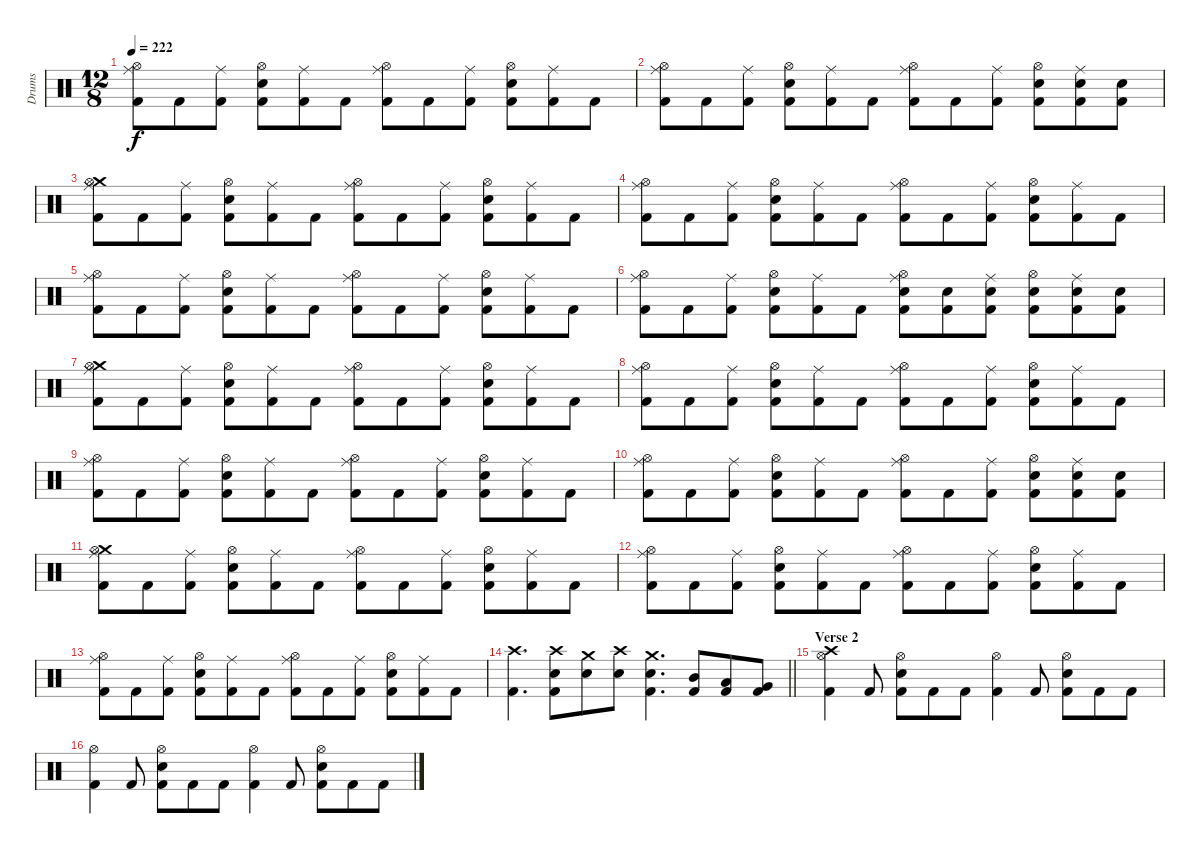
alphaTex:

\track ("Drums" "Drums") {instrument percussion}
\staff {score}
\articulation defaults
\ts (12 8)
\tempo 222
\clef neutral
\ks c
("Hi-Hat (open)" "Ride (middle)" "Kick (hit) 2").8{dy f} "Kick (hit) 2".8 ("Ride (middle)" "Kick (hit) 2").8 ("Hi-Hat (open)" "Snare (hit) 2" "Kick (hit) 2").8 ("Ride (middle)" "Kick (hit) 2").8 "Kick (hit) 2".8 ("Hi-Hat (open)" "Ride (middle)" "Kick (hit) 2").8 "Kick (hit) 2".8 ("Ride (middle)" "Kick (hit) 2").8 ("Hi-Hat (open)" "Snare (hit) 2" "Kick (hit) 2").8 ("Ride (middle)" "Kick (hit) 2").8 "Kick (hit) 2".8 |
("Hi-Hat (open)" "Ride (middle)" "Kick (hit) 2").8 "Kick (hit) 2".8 ("Ride (middle)" "Kick (hit) 2").8 ("Hi-Hat (open)" "Snare (hit) 2" "Kick (hit) 2").8 ("Ride (middle)" "Kick (hit) 2").8 "Kick (hit) 2".8 ("Hi-Hat (open)" "Ride (middle)" "Kick (hit) 2").8 "Kick (hit) 2".8 ("Ride (middle)" "Kick (hit) 2").8 ("Hi-Hat (open)" "Snare (hit) 2" "Kick (hit) 2").8 ("Ride (middle)" "Snare (hit) 2" "Kick (hit) 2").8 ("Snare (hit) 2" "Kick (hit) 2").8 |
("Crash medium (hit)" "Hi-Hat (open)" "Ride (middle)" "Kick (hit) 2").8 "Kick (hit) 2".8 ("Ride (middle)" "Kick (hit) 2").8 ("Hi-Hat (open)" "Snare (hit) 2" "Kick (hit) 2").8 ("Ride (middle)" "Kick (hit) 2").8 "Kick (hit) 2".8 ("Hi-Hat (open)" "Ride (middle)" "Kick (hit) 2").8 "Kick (hit) 2".8 ("Ride (middle)" "Kick (hit) 2").8 ("Hi-Hat (open)" "Snare (hit) 2" "Kick (hit) 2").8 ("Ride (middle)" "Kick (hit) 2").8 "Kick (hit) 2".8 |
("Hi-Hat (open)" "Ride (middle)" "Kick (hit) 2").8 "Kick (hit) 2".8 ("Ride (middle)" "Kick (hit) 2").8 ("Hi-Hat (open)" "Snare (hit) 2" "Kick (hit) 2").8 ("Ride (middle)" "Kick (hit) 2").8 "Kick (hit) 2".8 ("Hi-Hat (open)" "Ride (middle)" "Kick (hit) 2").8 "Kick (hit) 2".8 ("Ride (middle)" "Kick (hit) 2").8 ("Hi-Hat (open)" "Snare (hit) 2" "Kick (hit) 2").8 ("Ride (middle)" "Kick (hit) 2").8 "Kick (hit) 2".8 |
("Hi-Hat (open)" "Ride (middle)" "Kick (hit) 2").8 "Kick (hit) 2".8 ("Ride (middle)" "Kick (hit) 2").8 ("Hi-Hat (open)" "Snare (hit) 2" "Kick (hit) 2").8 ("Ride (middle)" "Kick (hit) 2").8 "Kick (hit) 2".8 ("Hi-Hat (open)" "Ride (middle)" "Kick (hit) 2").8 "Kick (hit) 2".8 ("Ride (middle)" "Kick (hit) 2").8 ("Hi-Hat (open)" "Snare (hit) 2" "Kick (hit) 2").8 ("Ride (middle)" "Kick (hit) 2").8 "Kick (hit) 2".8 |
("Hi-Hat (open)" "Ride (middle)" "Kick (hit) 2").8 "Kick (hit) 2".8 ("Ride (middle)" "Kick (hit) 2").8 ("Hi-Hat (open)" "Snare (hit) 2" "Kick (hit) 2").8 ("Ride (middle)" "Kick (hit) 2").8 "Kick (hit) 2".8 ("Hi-Hat (open)" "Ride (middle)" "Snare (hit) 2" "Kick (hit) 2").8 ("Snare (hit) 2" "Kick (hit) 2").8 ("Ride (middle)" "Snare (hit) 2" "Kick (hit) 2").8 ("Hi-Hat (open)" "Snare (hit) 2" "Kick (hit) 2").8 ("Ride (middle)" "Snare (hit) 2" "Kick (hit) 2").8 ("Snare (hit) 2" "Kick (hit) 2").8 |
("Crash medium (hit)" "Hi-Hat (open)" "Ride (middle)" "Kick (hit) 2").8 "Kick (hit) 2".8 ("Ride (middle)" "Kick (hit) 2").8 ("Hi-Hat (open)" "Snare (hit) 2" "Kick (hit) 2").8 ("Ride (middle)" "Kick (hit) 2").8 "Kick (hit) 2".8 ("Hi-Hat (open)" "Ride (middle)" "Kick (hit) 2").8 "Kick (hit) 2".8 ("Ride (middle)" "Kick (hit) 2").8 ("Hi-Hat (open)" "Snare (hit) 2" "Kick (hit) 2").8 ("Ride (middle)" "Kick (hit) 2").8 "Kick (hit) 2".8 |
("Hi-Hat (open)" "Ride (middle)" "Kick (hit) 2").8 "Kick (hit) 2".8 ("Ride (middle)" "Kick (hit) 2").8 ("Hi-Hat (open)" "Snare (hit) 2" "Kick (hit) 2").8 ("Ride (middle)" "Kick (hit) 2").8 "Kick (hit) 2".8 ("Hi-Hat (open)" "Ride (middle)" "Kick (hit) 2").8 "Kick (hit) 2".8 ("Ride (middle)" "Kick (hit) 2").8 ("Hi-Hat (open)" "Snare (hit) 2" "Kick (hit) 2").8 ("Ride (middle)" "Kick (hit) 2").8 "Kick (hit) 2".8 |
("Hi-Hat (open)" "Ride (middle)" "Kick (hit) 2").8 "Kick (hit) 2".8 ("Ride (middle)" "Kick (hit) 2").8 ("Hi-Hat (open)" "Snare (hit) 2" "Kick (hit) 2").8 ("Ride (middle)" "Kick (hit) 2").8 "Kick (hit) 2".8 ("Hi-Hat (open)" "Ride (middle)" "Kick (hit) 2").8 "Kick (hit) 2".8 ("Ride (middle)" "Kick (hit) 2").8 ("Hi-Hat (open)" "Snare (hit) 2" "Kick (hit) 2").8 ("Ride (middle)" "Kick (hit) 2").8 "Kick (hit) 2".8 |
("Hi-Hat (open)" "Ride (middle)" "Kick (hit) 2").8 "Kick (hit) 2".8 ("Ride (middle)" "Kick (hit) 2").8 ("Hi-Hat (open)" "Snare (hit) 2" "Kick (hit) 2").8 ("Ride (middle)" "Kick (hit) 2").8 "Kick (hit) 2".8 ("Hi-Hat (open)" "Ride (middle)" "Kick (hit) 2").8 "Kick (hit) 2".8 ("Ride (middle)" "Kick (hit) 2").8 ("Hi-Hat (open)" "Snare (hit) 2" "Kick (hit) 2").8 ("Ride (middle)" "Snare (hit) 2" "Kick (hit) 2").8 ("Snare (hit) 2" "Kick (hit) 2").8 |
("Crash medium (hit)" "Hi-Hat (open)" "Ride (middle)" "Kick (hit) 2").8 "Kick (hit) 2".8 ("Ride (middle)" "Kick (hit) 2").8 ("Hi-Hat (open)" "Snare (hit) 2" "Kick (hit) 2").8 ("Ride (middle)" "Kick (hit) 2").8 "Kick (hit) 2".8 ("Hi-Hat (open)" "Ride (middle)" "Kick (hit) 2").8 "Kick (hit) 2".8 ("Ride (middle)" "Kick (hit) 2").8 ("Hi-Hat (open)" "Snare (hit) 2" "Kick (hit) 2").8 ("Ride (middle)" "Kick (hit) 2").8 "Kick (hit) 2".8 |
("Hi-Hat (open)" "Ride (middle)" "Kick (hit) 2").8 "Kick (hit) 2".8 ("Ride (middle)" "Kick (hit) 2").8 ("Hi-Hat (open)" "Snare (hit) 2" "Kick (hit) 2").8 ("Ride (middle)" "Kick (hit) 2").8 "Kick (hit) 2".8 ("Hi-Hat (open)" "Ride (middle)" "Kick (hit) 2").8 "Kick (hit) 2".8 ("Ride (middle)" "Kick (hit) 2").8 ("Hi-Hat (open)" "Snare (hit) 2" "Kick (hit) 2").8 ("Ride (middle)" "Kick (hit) 2").8 "Kick (hit) 2".8 |
("Hi-Hat (open)" "Ride (middle)" "Kick (hit) 2").8 "Kick (hit) 2".8 ("Ride (middle)" "Kick (hit) 2").8 ("Hi-Hat (open)" "Snare (hit) 2" "Kick (hit) 2").8 ("Ride (middle)" "Kick (hit) 2").8 "Kick (hit) 2".8 ("Hi-Hat (open)" "Ride (middle)" "Kick (hit) 2").8 "Kick (hit) 2".8 ("Ride (middle)" "Kick (hit) 2").8 ("Hi-Hat (open)" "Snare (hit) 2" "Kick (hit) 2").8 ("Ride (middle)" "Kick (hit) 2").8 "Kick (hit) 2".8 |
\barLineRight lightlight
("Crash high (hit)" "Kick (hit) 2").4{d} ("Crash high (hit)" "Snare (hit) 2" "Kick (hit) 2").8 ("Crash medium (hit)" "Snare (hit) 2").8 ("Crash high (hit)" "Snare (hit) 2").8 ("Crash medium (hit)" "Snare (hit) 2" "Kick (hit) 2").4{d} ("Mid Tom (hit)" "Kick (hit) 2").8 ("Low Tom (hit)" "Kick (hit) 2").8 ("Very Low Tom (hit)" "Kick (hit) 2").8 |
\section ("" "Verse 2")
("Crash high (hit)" "Hi-Hat (open)" "Kick (hit) 2").4 "Kick (hit) 2".8 ("Hi-Hat (open)" "Snare (hit) 2" "Kick (hit) 2").8 "Kick (hit) 2".8 "Kick (hit) 2".8 ("Hi-Hat (open)" "Kick (hit) 2").4 "Kick (hit) 2".8 ("Hi-Hat (open)" "Snare (hit) 2" "Kick (hit) 2").8 "Kick (hit) 2".8 "Kick (hit) 2".8 |
("Hi-Hat (open)" "Kick (hit) 2").4 "Kick (hit) 2".8 ("Hi-Hat (open)" "Snare (hit) 2" "Kick (hit) 2").8 "Kick (hit) 2".8 "Kick (hit) 2".8 ("Hi-Hat (open)" "Kick (hit) 2").4 "Kick (hit) 2".8 ("Hi-Hat (open)" "Snare (hit) 2" "Kick (hit) 2").8 "Kick (hit) 2".8 "Kick (hit) 2".8
